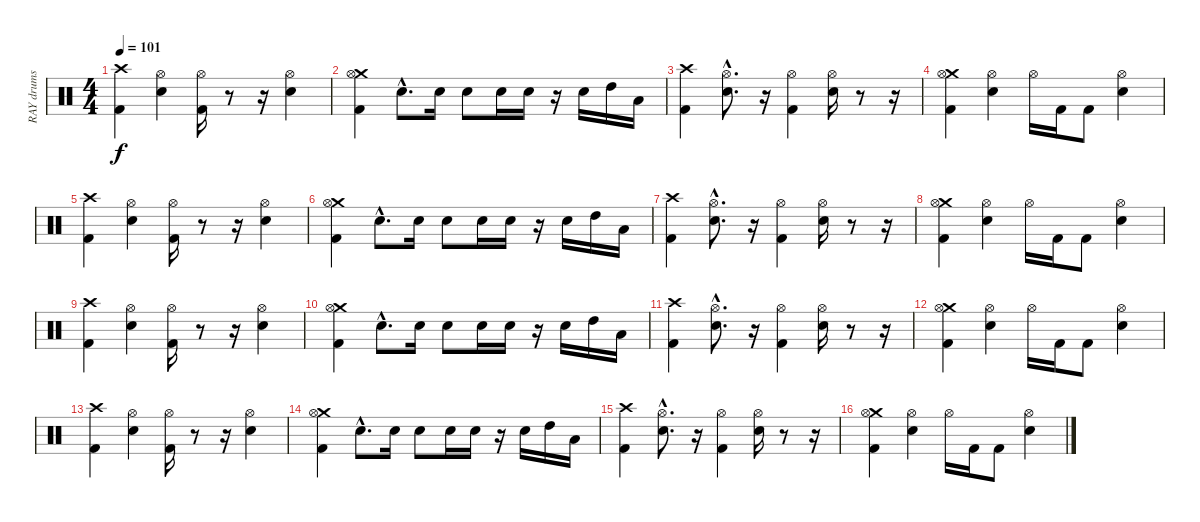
\track ("RAY drums" "RAY drums") {instrument percussion}
\staff {score}
\articulation defaults
\ts (4 4)
\tempo 101
\clef neutral
\ks c
("Kick (hit) 2" "Crash high (hit)").4{dy f} ("Electric Snare (hit)" "Hi-Hat (open)").4 ("Kick (hit) 2" "Hi-Hat (open)").16 r.8 r.16 ("Electric Snare (hit)" "Hi-Hat (open)").4 |
("Crash medium (hit)" "Kick (hit) 2" "Hi-Hat (open)").4 "Electric Snare (hit)"{hac}.8{d} "Electric Snare (hit)".16 "Electric Snare (hit)".8 "Electric Snare (hit)".16 "Electric Snare (hit)".16 r.16 "Electric Snare (hit)".16 "High Tom (hit)".16 "Low Tom (hit)".16 |
("Crash high (hit)" "Kick (hit) 2").4 ("Hi-Hat (open)"{hac} "Electric Snare (hit)"{hac}).8{d} r.16 ("Hi-Hat (open)" "Kick (hit) 2").4 ("Hi-Hat (open)" "Electric Snare (hit)").16 r.8 r.16 |
("Crash medium (hit)" "Hi-Hat (open)" "Kick (hit) 2").4 ("Hi-Hat (open)" "Electric Snare (hit)").4 "Hi-Hat (open)".16 "Kick (hit) 2".16 "Kick (hit) 2".8 ("Hi-Hat (open)" "Electric Snare (hit)").4 |
("Kick (hit) 2" "Crash high (hit)").4 ("Electric Snare (hit)" "Hi-Hat (open)").4 ("Kick (hit) 2" "Hi-Hat (open)").16 r.8 r.16 ("Electric Snare (hit)" "Hi-Hat (open)").4 |
("Crash medium (hit)" "Kick (hit) 2" "Hi-Hat (open)").4 "Electric Snare (hit)"{hac}.8{d} "Electric Snare (hit)".16 "Electric Snare (hit)".8 "Electric Snare (hit)".16 "Electric Snare (hit)".16 r.16 "Electric Snare (hit)".16 "High Tom (hit)".16 "Low Tom (hit)".16 |
("Crash high (hit)" "Kick (hit) 2").4 ("Hi-Hat (open)"{hac} "Electric Snare (hit)"{hac}).8{d} r.16 ("Hi-Hat (open)" "Kick (hit) 2").4 ("Hi-Hat (open)" "Electric Snare (hit)").16 r.8 r.16 |
("Crash medium (hit)" "Hi-Hat (open)" "Kick (hit) 2").4 ("Hi-Hat (open)" "Electric Snare (hit)").4 "Hi-Hat (open)".16 "Kick (hit) 2".16 "Kick (hit) 2".8 ("Hi-Hat (open)" "Electric Snare (hit)").4 |
("Kick (hit) 2" "Crash high (hit)").4 ("Electric Snare (hit)" "Hi-Hat (open)").4 ("Kick (hit) 2" "Hi-Hat (open)").16 r.8 r.16 ("Electric Snare (hit)" "Hi-Hat (open)").4 |
("Crash medium (hit)" "Kick (hit) 2" "Hi-Hat (open)").4 "Electric Snare (hit)"{hac}.8{d} "Electric Snare (hit)".16 "Electric Snare (hit)".8 "Electric Snare (hit)".16 "Electric Snare (hit)".16 r.16 "Electric Snare (hit)".16 "High Tom (hit)".16 "Low Tom (hit)".16 |
("Crash high (hit)" "Kick (hit) 2").4 ("Hi-Hat (open)"{hac} "Electric Snare (hit)"{hac}).8{d} r.16 ("Hi-Hat (open)" "Kick (hit) 2").4 ("Hi-Hat (open)" "Electric Snare (hit)").16 r.8 r.16 |
("Crash medium (hit)" "Hi-Hat (open)" "Kick (hit) 2").4 ("Hi-Hat (open)" "Electric Snare (hit)").4 "Hi-Hat (open)".16 "Kick (hit) 2".16 "Kick (hit) 2".8 ("Hi-Hat (open)" "Electric Snare (hit)").4 |
("Kick (hit) 2" "Crash high (hit)").4 ("Electric Snare (hit)" "Hi-Hat (open)").4 ("Kick (hit) 2" "Hi-Hat (open)").16 r.8 r.16 ("Electric Snare (hit)" "Hi-Hat (open)").4 |
("Crash medium (hit)" "Kick (hit) 2" "Hi-Hat (open)").4 "Electric Snare (hit)"{hac}.8{d} "Electric Snare (hit)".16 "Electric Snare (hit)".8 "Electric Snare (hit)".16 "Electric Snare (hit)".16 r.16 "Electric Snare (hit)".16 "High Tom (hit)".16 "Low Tom (hit)".16 |
("Crash high (hit)" "Kick (hit) 2").4 ("Hi-Hat (open)"{hac} "Electric Snare (hit)"{hac}).8{d} r.16 ("Hi-Hat (open)" "Kick (hit) 2").4 ("Hi-Hat (open)" "Electric Snare (hit)").16 r.8 r.16 |
("Crash medium (hit)" "Hi-Hat (open)" "Kick (hit) 2").4 ("Hi-Hat (open)" "Electric Snare (hit)").4 "Hi-Hat (open)".16 "Kick (hit) 2".16 "Kick (hit) 2".8 ("Hi-Hat (open)" "Electric Snare (hit)").4
